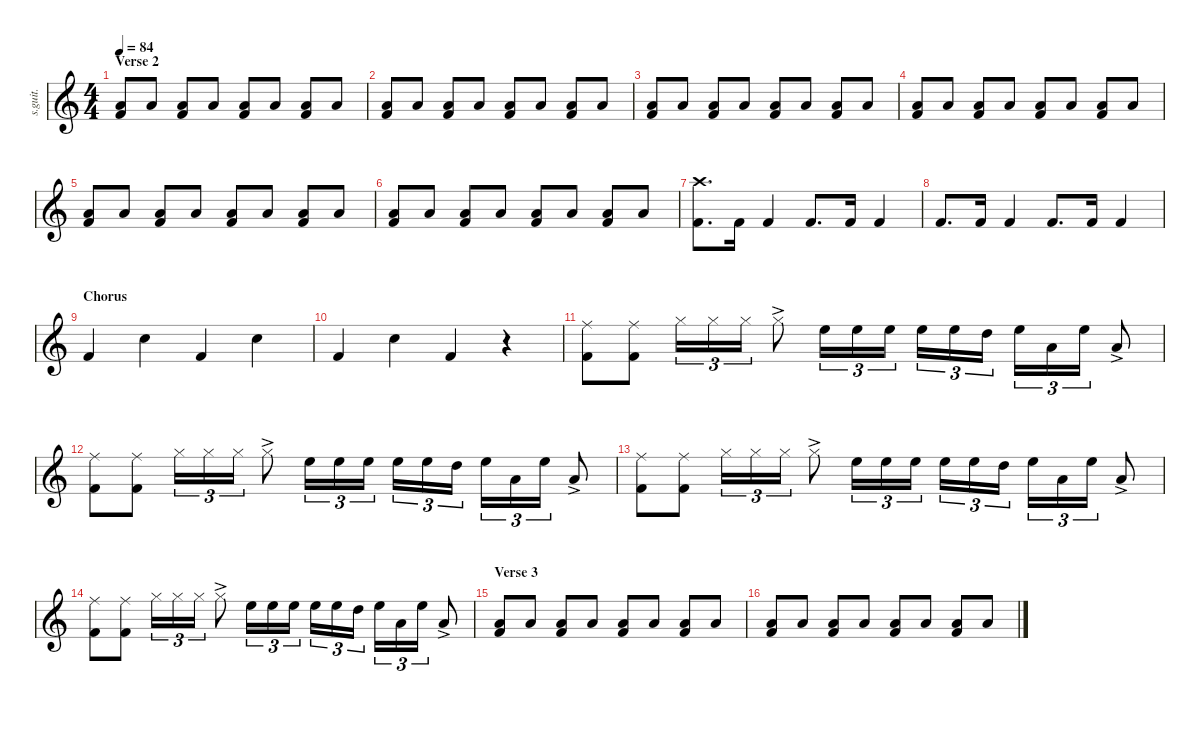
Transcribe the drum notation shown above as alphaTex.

\defaultSystemsLayout 4
\hideDynamics
\bracketExtendMode nobrackets
\track ("Ringo Starr - Drums" "s.guit.") {instrument percussion}
\staff {score}
\articulation defaults
\ts (4 4)
\section ("" "Verse 2")
\tempo 84
\clef g2
\ks c
("Kick (hit) 2" "Low Tom (hit)").8{lyrics (0 "") lyrics (1 "") lyrics (2 "") lyrics (3 "") lyrics (4 "") dy f} "Low Tom (hit)".8{lyrics (0 "") lyrics (1 "") lyrics (2 "") lyrics (3 "") lyrics (4 "")} ("Kick (hit) 2" "Low Tom (hit)").8{lyrics (0 "") lyrics (1 "") lyrics (2 "") lyrics (3 "") lyrics (4 "")} "Low Tom (hit)".8{lyrics (0 "") lyrics (1 "") lyrics (2 "") lyrics (3 "") lyrics (4 "")} ("Kick (hit) 2" "Low Tom (hit)").8{lyrics (0 "") lyrics (1 "") lyrics (2 "") lyrics (3 "") lyrics (4 "")} "Low Tom (hit)".8{lyrics (0 "") lyrics (1 "") lyrics (2 "") lyrics (3 "") lyrics (4 "")} ("Kick (hit) 2" "Low Tom (hit)").8{lyrics (0 "") lyrics (1 "") lyrics (2 "") lyrics (3 "") lyrics (4 "")} "Low Tom (hit)".8{lyrics (0 "") lyrics (1 "") lyrics (2 "") lyrics (3 "") lyrics (4 "")} |
("Kick (hit) 2" "Low Tom (hit)").8{lyrics (0 "") lyrics (1 "") lyrics (2 "") lyrics (3 "") lyrics (4 "")} "Low Tom (hit)".8{lyrics (0 "") lyrics (1 "") lyrics (2 "") lyrics (3 "") lyrics (4 "")} ("Kick (hit) 2" "Low Tom (hit)").8{lyrics (0 "") lyrics (1 "") lyrics (2 "") lyrics (3 "") lyrics (4 "")} "Low Tom (hit)".8{lyrics (0 "") lyrics (1 "") lyrics (2 "") lyrics (3 "") lyrics (4 "")} ("Kick (hit) 2" "Low Tom (hit)").8{lyrics (0 "") lyrics (1 "") lyrics (2 "") lyrics (3 "") lyrics (4 "")} "Low Tom (hit)".8{lyrics (0 "") lyrics (1 "") lyrics (2 "") lyrics (3 "") lyrics (4 "")} ("Kick (hit) 2" "Low Tom (hit)").8{lyrics (0 "") lyrics (1 "") lyrics (2 "") lyrics (3 "") lyrics (4 "")} "Low Tom (hit)".8{lyrics (0 "") lyrics (1 "") lyrics (2 "") lyrics (3 "") lyrics (4 "")} |
("Kick (hit) 2" "Low Tom (hit)").8{lyrics (0 "") lyrics (1 "") lyrics (2 "") lyrics (3 "") lyrics (4 "")} "Low Tom (hit)".8{lyrics (0 "") lyrics (1 "") lyrics (2 "") lyrics (3 "") lyrics (4 "")} ("Kick (hit) 2" "Low Tom (hit)").8{lyrics (0 "") lyrics (1 "") lyrics (2 "") lyrics (3 "") lyrics (4 "")} "Low Tom (hit)".8{lyrics (0 "") lyrics (1 "") lyrics (2 "") lyrics (3 "") lyrics (4 "")} ("Kick (hit) 2" "Low Tom (hit)").8{lyrics (0 "") lyrics (1 "") lyrics (2 "") lyrics (3 "") lyrics (4 "")} "Low Tom (hit)".8{lyrics (0 "") lyrics (1 "") lyrics (2 "") lyrics (3 "") lyrics (4 "")} ("Kick (hit) 2" "Low Tom (hit)").8{lyrics (0 "") lyrics (1 "") lyrics (2 "") lyrics (3 "") lyrics (4 "")} "Low Tom (hit)".8{lyrics (0 "") lyrics (1 "") lyrics (2 "") lyrics (3 "") lyrics (4 "")} |
("Kick (hit) 2" "Low Tom (hit)").8{lyrics (0 "") lyrics (1 "") lyrics (2 "") lyrics (3 "") lyrics (4 "")} "Low Tom (hit)".8{lyrics (0 "") lyrics (1 "") lyrics (2 "") lyrics (3 "") lyrics (4 "")} ("Kick (hit) 2" "Low Tom (hit)").8{lyrics (0 "") lyrics (1 "") lyrics (2 "") lyrics (3 "") lyrics (4 "")} "Low Tom (hit)".8{lyrics (0 "") lyrics (1 "") lyrics (2 "") lyrics (3 "") lyrics (4 "")} ("Kick (hit) 2" "Low Tom (hit)").8{lyrics (0 "") lyrics (1 "") lyrics (2 "") lyrics (3 "") lyrics (4 "")} "Low Tom (hit)".8{lyrics (0 "") lyrics (1 "") lyrics (2 "") lyrics (3 "") lyrics (4 "")} ("Kick (hit) 2" "Low Tom (hit)").8{lyrics (0 "") lyrics (1 "") lyrics (2 "") lyrics (3 "") lyrics (4 "")} "Low Tom (hit)".8{lyrics (0 "") lyrics (1 "") lyrics (2 "") lyrics (3 "") lyrics (4 "")} |
("Kick (hit) 2" "Low Tom (hit)").8{lyrics (0 "") lyrics (1 "") lyrics (2 "") lyrics (3 "") lyrics (4 "")} "Low Tom (hit)".8{lyrics (0 "") lyrics (1 "") lyrics (2 "") lyrics (3 "") lyrics (4 "")} ("Kick (hit) 2" "Low Tom (hit)").8{lyrics (0 "") lyrics (1 "") lyrics (2 "") lyrics (3 "") lyrics (4 "")} "Low Tom (hit)".8{lyrics (0 "") lyrics (1 "") lyrics (2 "") lyrics (3 "") lyrics (4 "")} ("Kick (hit) 2" "Low Tom (hit)").8{lyrics (0 "") lyrics (1 "") lyrics (2 "") lyrics (3 "") lyrics (4 "")} "Low Tom (hit)".8{lyrics (0 "") lyrics (1 "") lyrics (2 "") lyrics (3 "") lyrics (4 "")} ("Kick (hit) 2" "Low Tom (hit)").8{lyrics (0 "") lyrics (1 "") lyrics (2 "") lyrics (3 "") lyrics (4 "")} "Low Tom (hit)".8{lyrics (0 "") lyrics (1 "") lyrics (2 "") lyrics (3 "") lyrics (4 "")} |
("Kick (hit) 2" "Low Tom (hit)").8{lyrics (0 "") lyrics (1 "") lyrics (2 "") lyrics (3 "") lyrics (4 "")} "Low Tom (hit)".8{lyrics (0 "") lyrics (1 "") lyrics (2 "") lyrics (3 "") lyrics (4 "")} ("Kick (hit) 2" "Low Tom (hit)").8{lyrics (0 "") lyrics (1 "") lyrics (2 "") lyrics (3 "") lyrics (4 "")} "Low Tom (hit)".8{lyrics (0 "") lyrics (1 "") lyrics (2 "") lyrics (3 "") lyrics (4 "")} ("Kick (hit) 2" "Low Tom (hit)").8{lyrics (0 "") lyrics (1 "") lyrics (2 "") lyrics (3 "") lyrics (4 "")} "Low Tom (hit)".8{lyrics (0 "") lyrics (1 "") lyrics (2 "") lyrics (3 "") lyrics (4 "")} ("Kick (hit) 2" "Low Tom (hit)").8{lyrics (0 "") lyrics (1 "") lyrics (2 "") lyrics (3 "") lyrics (4 "")} "Low Tom (hit)".8{lyrics (0 "") lyrics (1 "") lyrics (2 "") lyrics (3 "") lyrics (4 "")} |
("Kick (hit) 2" "Crash high (hit)").8{d lyrics (0 "") lyrics (1 "") lyrics (2 "") lyrics (3 "") lyrics (4 "")} "Kick (hit) 2".16{lyrics (0 "") lyrics (1 "") lyrics (2 "") lyrics (3 "") lyrics (4 "")} "Kick (hit) 2".4{lyrics (0 "") lyrics (1 "") lyrics (2 "") lyrics (3 "") lyrics (4 "")} "Kick (hit) 2".8{d lyrics (0 "") lyrics (1 "") lyrics (2 "") lyrics (3 "") lyrics (4 "")} "Kick (hit) 2".16{lyrics (0 "") lyrics (1 "") lyrics (2 "") lyrics (3 "") lyrics (4 "")} "Kick (hit) 2".4{lyrics (0 "") lyrics (1 "") lyrics (2 "") lyrics (3 "") lyrics (4 "")} |
"Kick (hit) 2".8{d lyrics (0 "") lyrics (1 "") lyrics (2 "") lyrics (3 "") lyrics (4 "")} "Kick (hit) 2".16{lyrics (0 "") lyrics (1 "") lyrics (2 "") lyrics (3 "") lyrics (4 "")} "Kick (hit) 2".4{lyrics (0 "") lyrics (1 "") lyrics (2 "") lyrics (3 "") lyrics (4 "")} "Kick (hit) 2".8{d lyrics (0 "") lyrics (1 "") lyrics (2 "") lyrics (3 "") lyrics (4 "")} "Kick (hit) 2".16{lyrics (0 "") lyrics (1 "") lyrics (2 "") lyrics (3 "") lyrics (4 "")} "Kick (hit) 2".4{lyrics (0 "") lyrics (1 "") lyrics (2 "") lyrics (3 "") lyrics (4 "")} |
\section ("" "Chorus")
"Kick (hit) 2".4{lyrics (0 "") lyrics (1 "") lyrics (2 "") lyrics (3 "") lyrics (4 "")} "Snare (hit) 2".4{lyrics (0 "") lyrics (1 "") lyrics (2 "") lyrics (3 "") lyrics (4 "")} "Kick (hit) 2".4{lyrics (0 "") lyrics (1 "") lyrics (2 "") lyrics (3 "") lyrics (4 "")} "Snare (hit) 2".4{lyrics (0 "") lyrics (1 "") lyrics (2 "") lyrics (3 "") lyrics (4 "")} |
"Kick (hit) 2".4{lyrics (0 "") lyrics (1 "") lyrics (2 "") lyrics (3 "") lyrics (4 "")} "Snare (hit) 2".4{lyrics (0 "") lyrics (1 "") lyrics (2 "") lyrics (3 "") lyrics (4 "")} "Kick (hit) 2".4{lyrics (0 "") lyrics (1 "") lyrics (2 "") lyrics (3 "") lyrics (4 "")} r.4 |
("Ride (middle)" "Kick (hit) 2").8{lyrics (0 "") lyrics (1 "") lyrics (2 "") lyrics (3 "") lyrics (4 "")} ("Ride (middle)" "Kick (hit) 2").8{lyrics (0 "") lyrics (1 "") lyrics (2 "") lyrics (3 "") lyrics (4 "")} "Hi-Hat (closed)".16{tu (3 2) lyrics (0 "") lyrics (1 "") lyrics (2 "") lyrics (3 "") lyrics (4 "")} "Hi-Hat (closed)".16{tu (3 2) lyrics (0 "") lyrics (1 "") lyrics (2 "") lyrics (3 "") lyrics (4 "")} "Hi-Hat (closed)".16{tu (3 2) lyrics (0 "") lyrics (1 "") lyrics (2 "") lyrics (3 "") lyrics (4 "")} "Hi-Hat (closed)"{ac}.8{lyrics (0 "") lyrics (1 "") lyrics (2 "") lyrics (3 "") lyrics (4 "")} "High Floor Tom (hit)".16{tu (3 2) lyrics (0 "") lyrics (1 "") lyrics (2 "") lyrics (3 "") lyrics (4 "")} "High Floor Tom (hit)".16{tu (3 2) lyrics (0 "") lyrics (1 "") lyrics (2 "") lyrics (3 "") lyrics (4 "")} "High Floor Tom (hit)".16{tu (3 2) lyrics (0 "") lyrics (1 "") lyrics (2 "") lyrics (3 "") lyrics (4 "")} "High Floor Tom (hit)".16{tu (3 2) lyrics (0 "") lyrics (1 "") lyrics (2 "") lyrics (3 "") lyrics (4 "")} "High Floor Tom (hit)".16{tu (3 2) lyrics (0 "") lyrics (1 "") lyrics (2 "") lyrics (3 "") lyrics (4 "")} "High Tom (hit)".16{tu (3 2) lyrics (0 "") lyrics (1 "") lyrics (2 "") lyrics (3 "") lyrics (4 "")} "High Floor Tom (hit)".16{tu (3 2) lyrics (0 "") lyrics (1 "") lyrics (2 "") lyrics (3 "") lyrics (4 "")} "Low Tom (hit)".16{tu (3 2) lyrics (0 "") lyrics (1 "") lyrics (2 "") lyrics (3 "") lyrics (4 "")} "High Floor Tom (hit)".16{tu (3 2) lyrics (0 "") lyrics (1 "") lyrics (2 "") lyrics (3 "") lyrics (4 "")} "Low Tom (hit)"{ac}.8{lyrics (0 "") lyrics (1 "") lyrics (2 "") lyrics (3 "") lyrics (4 "")} |
("Ride (middle)" "Kick (hit) 2").8{lyrics (0 "") lyrics (1 "") lyrics (2 "") lyrics (3 "") lyrics (4 "")} ("Ride (middle)" "Kick (hit) 2").8{lyrics (0 "") lyrics (1 "") lyrics (2 "") lyrics (3 "") lyrics (4 "")} "Hi-Hat (closed)".16{tu (3 2) lyrics (0 "") lyrics (1 "") lyrics (2 "") lyrics (3 "") lyrics (4 "")} "Hi-Hat (closed)".16{tu (3 2) lyrics (0 "") lyrics (1 "") lyrics (2 "") lyrics (3 "") lyrics (4 "")} "Hi-Hat (closed)".16{tu (3 2) lyrics (0 "") lyrics (1 "") lyrics (2 "") lyrics (3 "") lyrics (4 "")} "Hi-Hat (closed)"{ac}.8{lyrics (0 "") lyrics (1 "") lyrics (2 "") lyrics (3 "") lyrics (4 "")} "High Floor Tom (hit)".16{tu (3 2) lyrics (0 "") lyrics (1 "") lyrics (2 "") lyrics (3 "") lyrics (4 "")} "High Floor Tom (hit)".16{tu (3 2) lyrics (0 "") lyrics (1 "") lyrics (2 "") lyrics (3 "") lyrics (4 "")} "High Floor Tom (hit)".16{tu (3 2) lyrics (0 "") lyrics (1 "") lyrics (2 "") lyrics (3 "") lyrics (4 "")} "High Floor Tom (hit)".16{tu (3 2) lyrics (0 "") lyrics (1 "") lyrics (2 "") lyrics (3 "") lyrics (4 "")} "High Floor Tom (hit)".16{tu (3 2) lyrics (0 "") lyrics (1 "") lyrics (2 "") lyrics (3 "") lyrics (4 "")} "High Tom (hit)".16{tu (3 2) lyrics (0 "") lyrics (1 "") lyrics (2 "") lyrics (3 "") lyrics (4 "")} "High Floor Tom (hit)".16{tu (3 2) lyrics (0 "") lyrics (1 "") lyrics (2 "") lyrics (3 "") lyrics (4 "")} "Low Tom (hit)".16{tu (3 2) lyrics (0 "") lyrics (1 "") lyrics (2 "") lyrics (3 "") lyrics (4 "")} "High Floor Tom (hit)".16{tu (3 2) lyrics (0 "") lyrics (1 "") lyrics (2 "") lyrics (3 "") lyrics (4 "")} "Low Tom (hit)"{ac}.8{lyrics (0 "") lyrics (1 "") lyrics (2 "") lyrics (3 "") lyrics (4 "")} |
("Ride (middle)" "Kick (hit) 2").8{lyrics (0 "") lyrics (1 "") lyrics (2 "") lyrics (3 "") lyrics (4 "")} ("Ride (middle)" "Kick (hit) 2").8{lyrics (0 "") lyrics (1 "") lyrics (2 "") lyrics (3 "") lyrics (4 "")} "Hi-Hat (closed)".16{tu (3 2) lyrics (0 "") lyrics (1 "") lyrics (2 "") lyrics (3 "") lyrics (4 "")} "Hi-Hat (closed)".16{tu (3 2) lyrics (0 "") lyrics (1 "") lyrics (2 "") lyrics (3 "") lyrics (4 "")} "Hi-Hat (closed)".16{tu (3 2) lyrics (0 "") lyrics (1 "") lyrics (2 "") lyrics (3 "") lyrics (4 "")} "Hi-Hat (closed)"{ac}.8{lyrics (0 "") lyrics (1 "") lyrics (2 "") lyrics (3 "") lyrics (4 "")} "High Floor Tom (hit)".16{tu (3 2) lyrics (0 "") lyrics (1 "") lyrics (2 "") lyrics (3 "") lyrics (4 "")} "High Floor Tom (hit)".16{tu (3 2) lyrics (0 "") lyrics (1 "") lyrics (2 "") lyrics (3 "") lyrics (4 "")} "High Floor Tom (hit)".16{tu (3 2) lyrics (0 "") lyrics (1 "") lyrics (2 "") lyrics (3 "") lyrics (4 "")} "High Floor Tom (hit)".16{tu (3 2) lyrics (0 "") lyrics (1 "") lyrics (2 "") lyrics (3 "") lyrics (4 "")} "High Floor Tom (hit)".16{tu (3 2) lyrics (0 "") lyrics (1 "") lyrics (2 "") lyrics (3 "") lyrics (4 "")} "High Tom (hit)".16{tu (3 2) lyrics (0 "") lyrics (1 "") lyrics (2 "") lyrics (3 "") lyrics (4 "")} "High Floor Tom (hit)".16{tu (3 2) lyrics (0 "") lyrics (1 "") lyrics (2 "") lyrics (3 "") lyrics (4 "")} "Low Tom (hit)".16{tu (3 2) lyrics (0 "") lyrics (1 "") lyrics (2 "") lyrics (3 "") lyrics (4 "")} "High Floor Tom (hit)".16{tu (3 2) lyrics (0 "") lyrics (1 "") lyrics (2 "") lyrics (3 "") lyrics (4 "")} "Low Tom (hit)"{ac}.8{lyrics (0 "") lyrics (1 "") lyrics (2 "") lyrics (3 "") lyrics (4 "")} |
("Ride (middle)" "Kick (hit) 2").8{lyrics (0 "") lyrics (1 "") lyrics (2 "") lyrics (3 "") lyrics (4 "")} ("Ride (middle)" "Kick (hit) 2").8{lyrics (0 "") lyrics (1 "") lyrics (2 "") lyrics (3 "") lyrics (4 "")} "Hi-Hat (closed)".16{tu (3 2) lyrics (0 "") lyrics (1 "") lyrics (2 "") lyrics (3 "") lyrics (4 "")} "Hi-Hat (closed)".16{tu (3 2) lyrics (0 "") lyrics (1 "") lyrics (2 "") lyrics (3 "") lyrics (4 "")} "Hi-Hat (closed)".16{tu (3 2) lyrics (0 "") lyrics (1 "") lyrics (2 "") lyrics (3 "") lyrics (4 "")} "Hi-Hat (closed)"{ac}.8{lyrics (0 "") lyrics (1 "") lyrics (2 "") lyrics (3 "") lyrics (4 "")} "High Floor Tom (hit)".16{tu (3 2) lyrics (0 "") lyrics (1 "") lyrics (2 "") lyrics (3 "") lyrics (4 "")} "High Floor Tom (hit)".16{tu (3 2) lyrics (0 "") lyrics (1 "") lyrics (2 "") lyrics (3 "") lyrics (4 "")} "High Floor Tom (hit)".16{tu (3 2) lyrics (0 "") lyrics (1 "") lyrics (2 "") lyrics (3 "") lyrics (4 "")} "High Floor Tom (hit)".16{tu (3 2) lyrics (0 "") lyrics (1 "") lyrics (2 "") lyrics (3 "") lyrics (4 "")} "High Floor Tom (hit)".16{tu (3 2) lyrics (0 "") lyrics (1 "") lyrics (2 "") lyrics (3 "") lyrics (4 "")} "High Tom (hit)".16{tu (3 2) lyrics (0 "") lyrics (1 "") lyrics (2 "") lyrics (3 "") lyrics (4 "")} "High Floor Tom (hit)".16{tu (3 2) lyrics (0 "") lyrics (1 "") lyrics (2 "") lyrics (3 "") lyrics (4 "")} "Low Tom (hit)".16{tu (3 2) lyrics (0 "") lyrics (1 "") lyrics (2 "") lyrics (3 "") lyrics (4 "")} "High Floor Tom (hit)".16{tu (3 2) lyrics (0 "") lyrics (1 "") lyrics (2 "") lyrics (3 "") lyrics (4 "")} "Low Tom (hit)"{ac}.8{lyrics (0 "") lyrics (1 "") lyrics (2 "") lyrics (3 "") lyrics (4 "")} |
\section ("" "Verse 3")
("Kick (hit) 2" "Low Tom (hit)").8{lyrics (0 "") lyrics (1 "") lyrics (2 "") lyrics (3 "") lyrics (4 "")} "Low Tom (hit)".8{lyrics (0 "") lyrics (1 "") lyrics (2 "") lyrics (3 "") lyrics (4 "")} ("Kick (hit) 2" "Low Tom (hit)").8{lyrics (0 "") lyrics (1 "") lyrics (2 "") lyrics (3 "") lyrics (4 "")} "Low Tom (hit)".8{lyrics (0 "") lyrics (1 "") lyrics (2 "") lyrics (3 "") lyrics (4 "")} ("Kick (hit) 2" "Low Tom (hit)").8{lyrics (0 "") lyrics (1 "") lyrics (2 "") lyrics (3 "") lyrics (4 "")} "Low Tom (hit)".8{lyrics (0 "") lyrics (1 "") lyrics (2 "") lyrics (3 "") lyrics (4 "")} ("Kick (hit) 2" "Low Tom (hit)").8{lyrics (0 "") lyrics (1 "") lyrics (2 "") lyrics (3 "") lyrics (4 "")} "Low Tom (hit)".8{lyrics (0 "") lyrics (1 "") lyrics (2 "") lyrics (3 "") lyrics (4 "")} |
("Kick (hit) 2" "Low Tom (hit)").8{lyrics (0 "") lyrics (1 "") lyrics (2 "") lyrics (3 "") lyrics (4 "")} "Low Tom (hit)".8{lyrics (0 "") lyrics (1 "") lyrics (2 "") lyrics (3 "") lyrics (4 "")} ("Kick (hit) 2" "Low Tom (hit)").8{lyrics (0 "") lyrics (1 "") lyrics (2 "") lyrics (3 "") lyrics (4 "")} "Low Tom (hit)".8{lyrics (0 "") lyrics (1 "") lyrics (2 "") lyrics (3 "") lyrics (4 "")} ("Kick (hit) 2" "Low Tom (hit)").8{lyrics (0 "") lyrics (1 "") lyrics (2 "") lyrics (3 "") lyrics (4 "")} "Low Tom (hit)".8{lyrics (0 "") lyrics (1 "") lyrics (2 "") lyrics (3 "") lyrics (4 "")} ("Kick (hit) 2" "Low Tom (hit)").8{lyrics (0 "") lyrics (1 "") lyrics (2 "") lyrics (3 "") lyrics (4 "")} "Low Tom (hit)".8{lyrics (0 "") lyrics (1 "") lyrics (2 "") lyrics (3 "") lyrics (4 "")}
